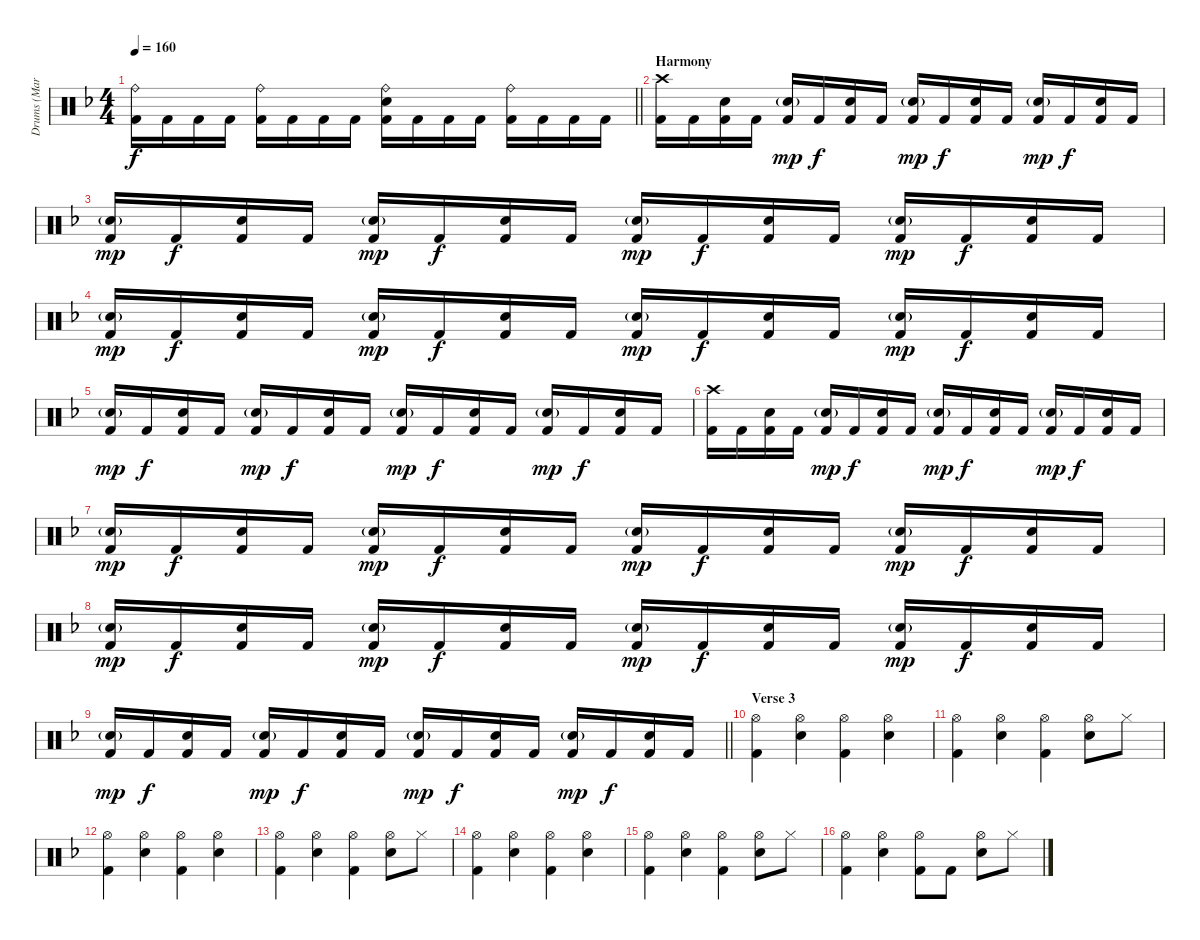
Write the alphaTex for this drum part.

\track ("Drums (Mark)" "Drums (Mar") {instrument percussion}
\staff {score}
\articulation defaults
\ts (4 4)
\tempo 160
\clef neutral
\barLineRight lightlight
\ks dminor
("Ride (bell)" "Kick (hit) 2").16{dy f} "Kick (hit) 2".16 "Kick (hit) 2".16 "Kick (hit) 2".16 ("Ride (bell)" "Kick (hit) 2").16 "Kick (hit) 2".16 "Kick (hit) 2".16 "Kick (hit) 2".16 ("Ride (bell)" "Snare (hit) 2" "Kick (hit) 2").16 "Kick (hit) 2".16 "Kick (hit) 2".16 "Kick (hit) 2".16 ("Ride (bell)" "Kick (hit) 2").16 "Kick (hit) 2".16 "Kick (hit) 2".16 "Kick (hit) 2".16 |
\section ("" "Harmony")
("Crash high (hit)" "Kick (hit) 2").16 "Kick (hit) 2".16 ("Electric Snare (hit)" "Kick (hit) 2").16 "Kick (hit) 2".16 ("Electric Snare (hit)"{g} "Kick (hit) 2").16{dy mp} "Kick (hit) 2".16{dy f} ("Electric Snare (hit)" "Kick (hit) 2").16 "Kick (hit) 2".16 ("Electric Snare (hit)"{g} "Kick (hit) 2").16{dy mp} "Kick (hit) 2".16{dy f} ("Electric Snare (hit)" "Kick (hit) 2").16 "Kick (hit) 2".16 ("Electric Snare (hit)"{g} "Kick (hit) 2").16{dy mp} "Kick (hit) 2".16{dy f} ("Electric Snare (hit)" "Kick (hit) 2").16 "Kick (hit) 2".16 |
("Electric Snare (hit)"{g} "Kick (hit) 2").16{dy mp} "Kick (hit) 2".16{dy f} ("Electric Snare (hit)" "Kick (hit) 2").16 "Kick (hit) 2".16 ("Electric Snare (hit)"{g} "Kick (hit) 2").16{dy mp} "Kick (hit) 2".16{dy f} ("Electric Snare (hit)" "Kick (hit) 2").16 "Kick (hit) 2".16 ("Electric Snare (hit)"{g} "Kick (hit) 2").16{dy mp} "Kick (hit) 2".16{dy f} ("Electric Snare (hit)" "Kick (hit) 2").16 "Kick (hit) 2".16 ("Electric Snare (hit)"{g} "Kick (hit) 2").16{dy mp} "Kick (hit) 2".16{dy f} ("Electric Snare (hit)" "Kick (hit) 2").16 "Kick (hit) 2".16 |
("Electric Snare (hit)"{g} "Kick (hit) 2").16{dy mp} "Kick (hit) 2".16{dy f} ("Electric Snare (hit)" "Kick (hit) 2").16 "Kick (hit) 2".16 ("Electric Snare (hit)"{g} "Kick (hit) 2").16{dy mp} "Kick (hit) 2".16{dy f} ("Electric Snare (hit)" "Kick (hit) 2").16 "Kick (hit) 2".16 ("Electric Snare (hit)"{g} "Kick (hit) 2").16{dy mp} "Kick (hit) 2".16{dy f} ("Electric Snare (hit)" "Kick (hit) 2").16 "Kick (hit) 2".16 ("Electric Snare (hit)"{g} "Kick (hit) 2").16{dy mp} "Kick (hit) 2".16{dy f} ("Electric Snare (hit)" "Kick (hit) 2").16 "Kick (hit) 2".16 |
("Electric Snare (hit)"{g} "Kick (hit) 2").16{dy mp} "Kick (hit) 2".16{dy f} ("Electric Snare (hit)" "Kick (hit) 2").16 "Kick (hit) 2".16 ("Electric Snare (hit)"{g} "Kick (hit) 2").16{dy mp} "Kick (hit) 2".16{dy f} ("Electric Snare (hit)" "Kick (hit) 2").16 "Kick (hit) 2".16 ("Electric Snare (hit)"{g} "Kick (hit) 2").16{dy mp} "Kick (hit) 2".16{dy f} ("Electric Snare (hit)" "Kick (hit) 2").16 "Kick (hit) 2".16 ("Electric Snare (hit)"{g} "Kick (hit) 2").16{dy mp} "Kick (hit) 2".16{dy f} ("Electric Snare (hit)" "Kick (hit) 2").16 "Kick (hit) 2".16 |
("Crash high (hit)" "Kick (hit) 2").16 "Kick (hit) 2".16 ("Electric Snare (hit)" "Kick (hit) 2").16 "Kick (hit) 2".16 ("Electric Snare (hit)"{g} "Kick (hit) 2").16{dy mp} "Kick (hit) 2".16{dy f} ("Electric Snare (hit)" "Kick (hit) 2").16 "Kick (hit) 2".16 ("Electric Snare (hit)"{g} "Kick (hit) 2").16{dy mp} "Kick (hit) 2".16{dy f} ("Electric Snare (hit)" "Kick (hit) 2").16 "Kick (hit) 2".16 ("Electric Snare (hit)"{g} "Kick (hit) 2").16{dy mp} "Kick (hit) 2".16{dy f} ("Electric Snare (hit)" "Kick (hit) 2").16 "Kick (hit) 2".16 |
("Electric Snare (hit)"{g} "Kick (hit) 2").16{dy mp} "Kick (hit) 2".16{dy f} ("Electric Snare (hit)" "Kick (hit) 2").16 "Kick (hit) 2".16 ("Electric Snare (hit)"{g} "Kick (hit) 2").16{dy mp} "Kick (hit) 2".16{dy f} ("Electric Snare (hit)" "Kick (hit) 2").16 "Kick (hit) 2".16 ("Electric Snare (hit)"{g} "Kick (hit) 2").16{dy mp} "Kick (hit) 2".16{dy f} ("Electric Snare (hit)" "Kick (hit) 2").16 "Kick (hit) 2".16 ("Electric Snare (hit)"{g} "Kick (hit) 2").16{dy mp} "Kick (hit) 2".16{dy f} ("Electric Snare (hit)" "Kick (hit) 2").16 "Kick (hit) 2".16 |
("Electric Snare (hit)"{g} "Kick (hit) 2").16{dy mp} "Kick (hit) 2".16{dy f} ("Electric Snare (hit)" "Kick (hit) 2").16 "Kick (hit) 2".16 ("Electric Snare (hit)"{g} "Kick (hit) 2").16{dy mp} "Kick (hit) 2".16{dy f} ("Electric Snare (hit)" "Kick (hit) 2").16 "Kick (hit) 2".16 ("Electric Snare (hit)"{g} "Kick (hit) 2").16{dy mp} "Kick (hit) 2".16{dy f} ("Electric Snare (hit)" "Kick (hit) 2").16 "Kick (hit) 2".16 ("Electric Snare (hit)"{g} "Kick (hit) 2").16{dy mp} "Kick (hit) 2".16{dy f} ("Electric Snare (hit)" "Kick (hit) 2").16 "Kick (hit) 2".16 |
\barLineRight lightlight
("Electric Snare (hit)"{g} "Kick (hit) 2").16{dy mp} "Kick (hit) 2".16{dy f} ("Electric Snare (hit)" "Kick (hit) 2").16 "Kick (hit) 2".16 ("Electric Snare (hit)"{g} "Kick (hit) 2").16{dy mp} "Kick (hit) 2".16{dy f} ("Electric Snare (hit)" "Kick (hit) 2").16 "Kick (hit) 2".16 ("Electric Snare (hit)"{g} "Kick (hit) 2").16{dy mp} "Kick (hit) 2".16{dy f} ("Electric Snare (hit)" "Kick (hit) 2").16 "Kick (hit) 2".16 ("Electric Snare (hit)"{g} "Kick (hit) 2").16{dy mp} "Kick (hit) 2".16{dy f} ("Electric Snare (hit)" "Kick (hit) 2").16 "Kick (hit) 2".16 |
\section ("" "Verse 3")
("Hi-Hat (open)" "Kick (hit) 2").4 ("Hi-Hat (open)" "Electric Snare (hit)").4 ("Hi-Hat (open)" "Kick (hit) 2").4 ("Hi-Hat (open)" "Electric Snare (hit)").4 |
("Hi-Hat (open)" "Kick (hit) 2").4 ("Hi-Hat (open)" "Electric Snare (hit)").4 ("Hi-Hat (open)" "Kick (hit) 2").4 ("Hi-Hat (open)" "Electric Snare (hit)").8 "Hi-Hat (closed)".8 |
("Hi-Hat (open)" "Kick (hit) 2").4 ("Hi-Hat (open)" "Electric Snare (hit)").4 ("Hi-Hat (open)" "Kick (hit) 2").4 ("Hi-Hat (open)" "Electric Snare (hit)").4 |
("Hi-Hat (open)" "Kick (hit) 2").4 ("Hi-Hat (open)" "Electric Snare (hit)").4 ("Hi-Hat (open)" "Kick (hit) 2").4 ("Hi-Hat (open)" "Electric Snare (hit)").8 "Hi-Hat (closed)".8 |
("Hi-Hat (open)" "Kick (hit) 2").4 ("Hi-Hat (open)" "Electric Snare (hit)").4 ("Hi-Hat (open)" "Kick (hit) 2").4 ("Hi-Hat (open)" "Electric Snare (hit)").4 |
("Hi-Hat (open)" "Kick (hit) 2").4 ("Hi-Hat (open)" "Electric Snare (hit)").4 ("Hi-Hat (open)" "Kick (hit) 2").4 ("Hi-Hat (open)" "Electric Snare (hit)").8 "Hi-Hat (closed)".8 |
("Hi-Hat (open)" "Kick (hit) 2").4 ("Hi-Hat (open)" "Electric Snare (hit)").4 ("Hi-Hat (open)" "Kick (hit) 2").8 "Kick (hit) 2".8 ("Hi-Hat (open)" "Electric Snare (hit)").8 "Hi-Hat (closed)".8
